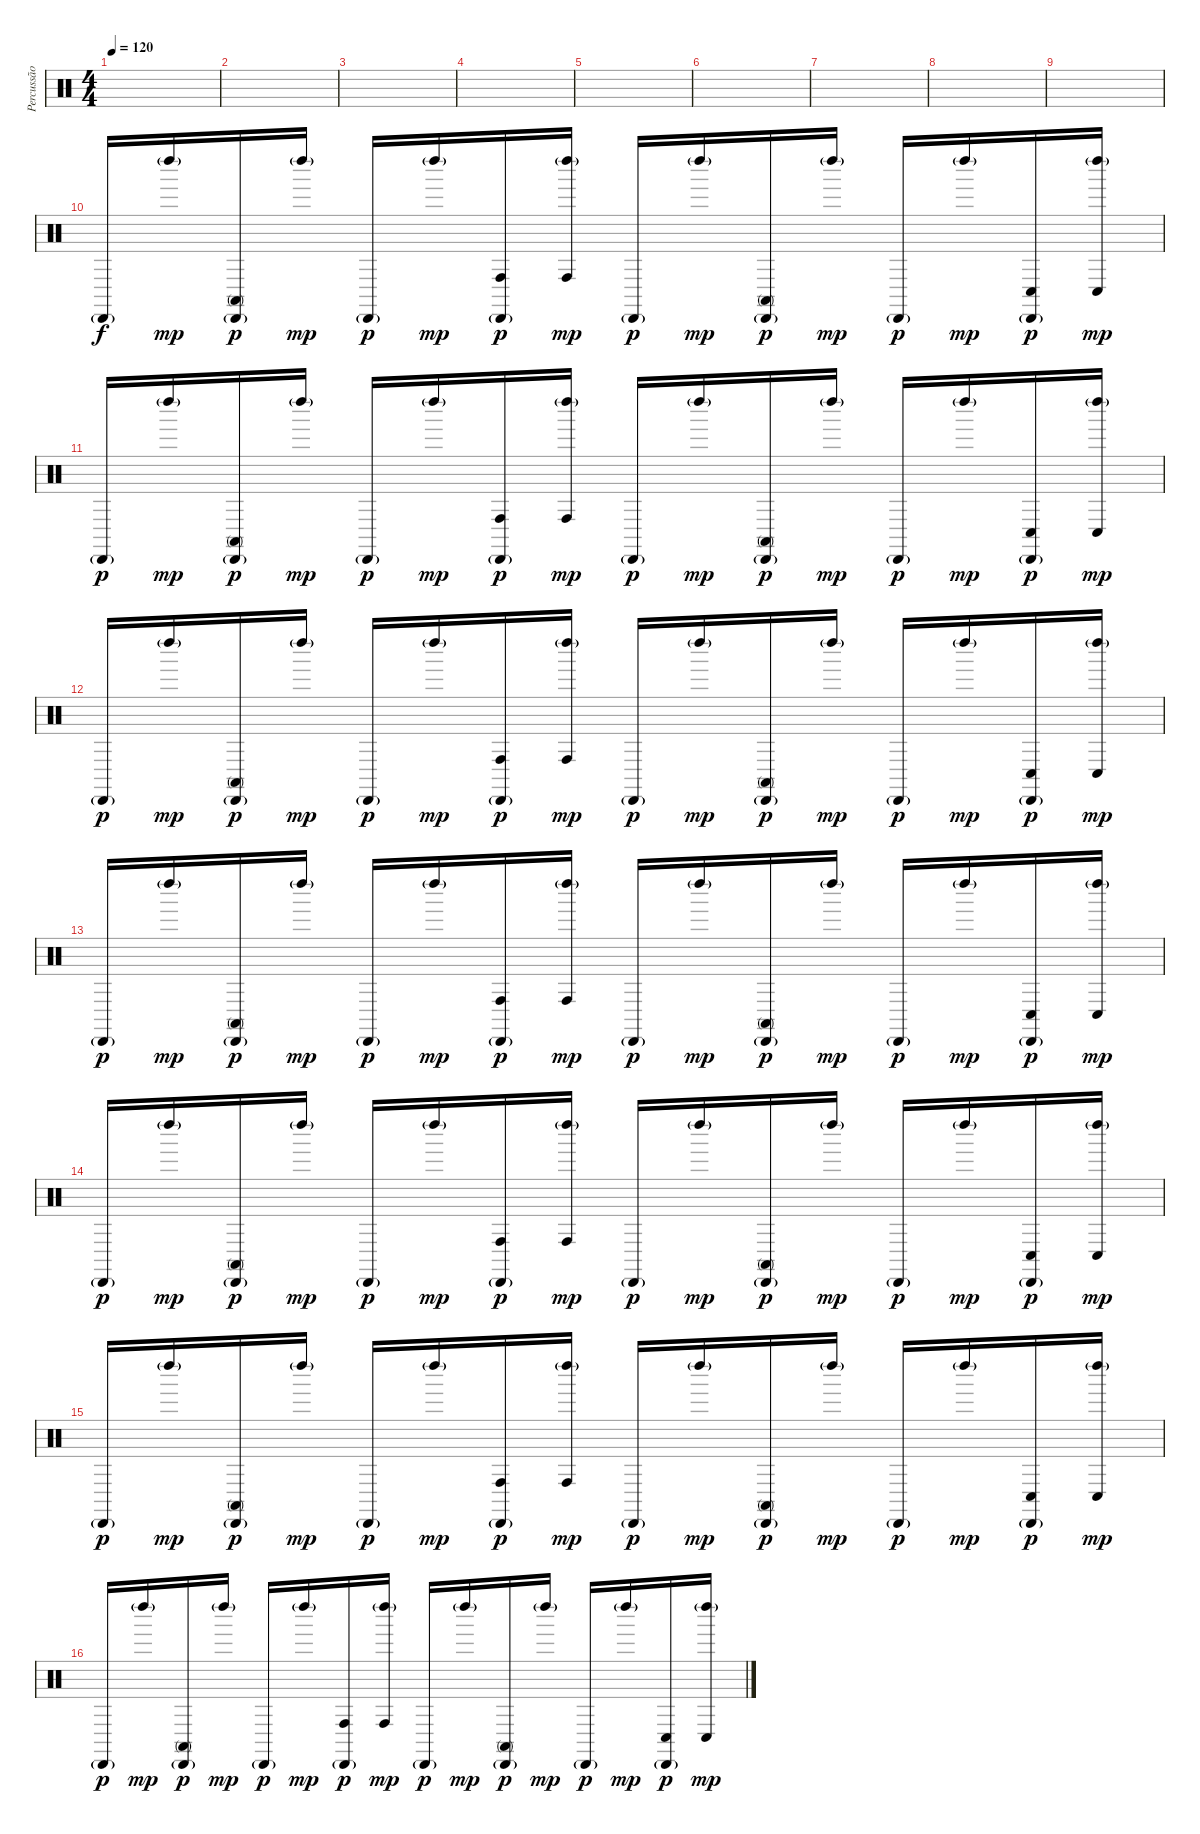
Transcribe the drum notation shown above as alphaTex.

\track ("Percussão Ad." "Percussão ") {instrument percussion}
\staff {score}
\articulation defaults
\ts (4 4)
\tempo 120
\clef neutral
\ks c
|
|
|
|
|
|
|
|
|
"Cabasa (hit)"{g}.16 "Left Maraca (hit)"{g}.16{dy mp} ("Conga high (mute)" "Cabasa (hit)"{g}).16{dy p} "Left Maraca (hit)"{g}.16{dy mp} "Cabasa (hit)"{g}.16{dy p} "Left Maraca (hit)"{g}.16{dy mp} ("Conga high (hit)" "Cabasa (hit)"{g}).16{dy p} ("Conga high (hit)" "Left Maraca (hit)"{g}).16{dy mp} "Cabasa (hit)"{g}.16{dy p} "Left Maraca (hit)"{g}.16{dy mp} ("Conga high (mute)" "Cabasa (hit)"{g}).16{dy p} "Left Maraca (hit)"{g}.16{dy mp} "Cabasa (hit)"{g}.16{dy p} "Left Maraca (hit)"{g}.16{dy mp} ("Conga low (hit)" "Cabasa (hit)"{g}).16{dy p} ("Conga low (hit)" "Left Maraca (hit)"{g}).16{dy mp} |
"Cabasa (hit)"{g}.16{dy p} "Left Maraca (hit)"{g}.16{dy mp} ("Conga high (mute)" "Cabasa (hit)"{g}).16{dy p} "Left Maraca (hit)"{g}.16{dy mp} "Cabasa (hit)"{g}.16{dy p} "Left Maraca (hit)"{g}.16{dy mp} ("Conga high (hit)" "Cabasa (hit)"{g}).16{dy p} ("Conga high (hit)" "Left Maraca (hit)"{g}).16{dy mp} "Cabasa (hit)"{g}.16{dy p} "Left Maraca (hit)"{g}.16{dy mp} ("Conga high (mute)" "Cabasa (hit)"{g}).16{dy p} "Left Maraca (hit)"{g}.16{dy mp} "Cabasa (hit)"{g}.16{dy p} "Left Maraca (hit)"{g}.16{dy mp} ("Conga low (hit)" "Cabasa (hit)"{g}).16{dy p} ("Conga low (hit)" "Left Maraca (hit)"{g}).16{dy mp} |
"Cabasa (hit)"{g}.16{dy p} "Left Maraca (hit)"{g}.16{dy mp} ("Conga high (mute)" "Cabasa (hit)"{g}).16{dy p} "Left Maraca (hit)"{g}.16{dy mp} "Cabasa (hit)"{g}.16{dy p} "Left Maraca (hit)"{g}.16{dy mp} ("Conga high (hit)" "Cabasa (hit)"{g}).16{dy p} ("Conga high (hit)" "Left Maraca (hit)"{g}).16{dy mp} "Cabasa (hit)"{g}.16{dy p} "Left Maraca (hit)"{g}.16{dy mp} ("Conga high (mute)" "Cabasa (hit)"{g}).16{dy p} "Left Maraca (hit)"{g}.16{dy mp} "Cabasa (hit)"{g}.16{dy p} "Left Maraca (hit)"{g}.16{dy mp} ("Conga low (hit)" "Cabasa (hit)"{g}).16{dy p} ("Conga low (hit)" "Left Maraca (hit)"{g}).16{dy mp} |
"Cabasa (hit)"{g}.16{dy p} "Left Maraca (hit)"{g}.16{dy mp} ("Conga high (mute)" "Cabasa (hit)"{g}).16{dy p} "Left Maraca (hit)"{g}.16{dy mp} "Cabasa (hit)"{g}.16{dy p} "Left Maraca (hit)"{g}.16{dy mp} ("Conga high (hit)" "Cabasa (hit)"{g}).16{dy p} ("Conga high (hit)" "Left Maraca (hit)"{g}).16{dy mp} "Cabasa (hit)"{g}.16{dy p} "Left Maraca (hit)"{g}.16{dy mp} ("Conga high (mute)" "Cabasa (hit)"{g}).16{dy p} "Left Maraca (hit)"{g}.16{dy mp} "Cabasa (hit)"{g}.16{dy p} "Left Maraca (hit)"{g}.16{dy mp} ("Conga low (hit)" "Cabasa (hit)"{g}).16{dy p} ("Conga low (hit)" "Left Maraca (hit)"{g}).16{dy mp} |
"Cabasa (hit)"{g}.16{dy p} "Left Maraca (hit)"{g}.16{dy mp} ("Conga high (mute)" "Cabasa (hit)"{g}).16{dy p} "Left Maraca (hit)"{g}.16{dy mp} "Cabasa (hit)"{g}.16{dy p} "Left Maraca (hit)"{g}.16{dy mp} ("Conga high (hit)" "Cabasa (hit)"{g}).16{dy p} ("Conga high (hit)" "Left Maraca (hit)"{g}).16{dy mp} "Cabasa (hit)"{g}.16{dy p} "Left Maraca (hit)"{g}.16{dy mp} ("Conga high (mute)" "Cabasa (hit)"{g}).16{dy p} "Left Maraca (hit)"{g}.16{dy mp} "Cabasa (hit)"{g}.16{dy p} "Left Maraca (hit)"{g}.16{dy mp} ("Conga low (hit)" "Cabasa (hit)"{g}).16{dy p} ("Conga low (hit)" "Left Maraca (hit)"{g}).16{dy mp} |
"Cabasa (hit)"{g}.16{dy p} "Left Maraca (hit)"{g}.16{dy mp} ("Conga high (mute)" "Cabasa (hit)"{g}).16{dy p} "Left Maraca (hit)"{g}.16{dy mp} "Cabasa (hit)"{g}.16{dy p} "Left Maraca (hit)"{g}.16{dy mp} ("Conga high (hit)" "Cabasa (hit)"{g}).16{dy p} ("Conga high (hit)" "Left Maraca (hit)"{g}).16{dy mp} "Cabasa (hit)"{g}.16{dy p} "Left Maraca (hit)"{g}.16{dy mp} ("Conga high (mute)" "Cabasa (hit)"{g}).16{dy p} "Left Maraca (hit)"{g}.16{dy mp} "Cabasa (hit)"{g}.16{dy p} "Left Maraca (hit)"{g}.16{dy mp} ("Conga low (hit)" "Cabasa (hit)"{g}).16{dy p} ("Conga low (hit)" "Left Maraca (hit)"{g}).16{dy mp} |
"Cabasa (hit)"{g}.16{dy p} "Left Maraca (hit)"{g}.16{dy mp} ("Conga high (mute)" "Cabasa (hit)"{g}).16{dy p} "Left Maraca (hit)"{g}.16{dy mp} "Cabasa (hit)"{g}.16{dy p} "Left Maraca (hit)"{g}.16{dy mp} ("Conga high (hit)" "Cabasa (hit)"{g}).16{dy p} ("Conga high (hit)" "Left Maraca (hit)"{g}).16{dy mp} "Cabasa (hit)"{g}.16{dy p} "Left Maraca (hit)"{g}.16{dy mp} ("Conga high (mute)" "Cabasa (hit)"{g}).16{dy p} "Left Maraca (hit)"{g}.16{dy mp} "Cabasa (hit)"{g}.16{dy p} "Left Maraca (hit)"{g}.16{dy mp} ("Conga low (hit)" "Cabasa (hit)"{g}).16{dy p} ("Conga low (hit)" "Left Maraca (hit)"{g}).16{dy mp}
